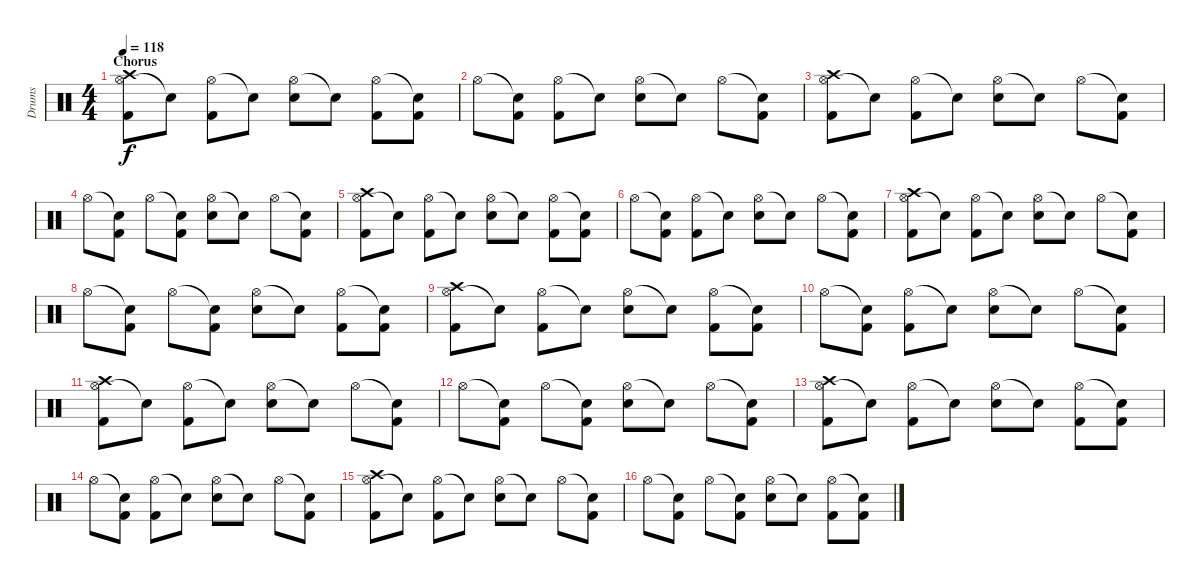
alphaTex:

\track ("Drums" "Drums") {instrument percussion}
\staff {score}
\articulation defaults
\ts (4 4)
\section ("" "Chorus")
\tempo 118
\clef neutral
\ks c
("Hi-Hat (open)" "Kick (hit) 2" "Crash high (hit)").8{dy f} "Snare (hit)"{t}.8 ("Hi-Hat (open)" "Kick (hit) 2").8 "Snare (hit)"{t}.8 ("Hi-Hat (open)" "Electric Snare (hit)").8 "Snare (hit)"{t}.8 ("Hi-Hat (open)" "Kick (hit) 2").8 ("Snare (hit)"{t} "Kick (hit) 2").8 |
"Hi-Hat (open)".8 ("Snare (hit)"{t} "Kick (hit) 2").8 ("Hi-Hat (open)" "Kick (hit) 2").8 "Snare (hit)"{t}.8 ("Hi-Hat (open)" "Electric Snare (hit)").8 "Snare (hit)"{t}.8 "Hi-Hat (open)".8 ("Snare (hit)"{t} "Kick (hit) 2").8 |
("Hi-Hat (open)" "Kick (hit) 2" "Crash high (hit)").8 "Snare (hit)"{t}.8 ("Hi-Hat (open)" "Kick (hit) 2").8 "Snare (hit)"{t}.8 ("Hi-Hat (open)" "Electric Snare (hit)").8 "Snare (hit)"{t}.8 "Hi-Hat (open)".8 ("Snare (hit)"{t} "Kick (hit) 2").8 |
"Hi-Hat (open)".8 ("Snare (hit)"{t} "Kick (hit) 2").8 "Hi-Hat (open)".8 ("Snare (hit)"{t} "Kick (hit) 2").8 ("Hi-Hat (open)" "Electric Snare (hit)").8 "Snare (hit)"{t}.8 "Hi-Hat (open)".8 ("Snare (hit)"{t} "Kick (hit) 2").8 |
("Hi-Hat (open)" "Kick (hit) 2" "Crash high (hit)").8 "Snare (hit)"{t}.8 ("Hi-Hat (open)" "Kick (hit) 2").8 "Snare (hit)"{t}.8 ("Hi-Hat (open)" "Electric Snare (hit)").8 "Snare (hit)"{t}.8 ("Hi-Hat (open)" "Kick (hit) 2").8 ("Snare (hit)"{t} "Kick (hit) 2").8 |
"Hi-Hat (open)".8 ("Snare (hit)"{t} "Kick (hit) 2").8 ("Hi-Hat (open)" "Kick (hit) 2").8 "Snare (hit)"{t}.8 ("Hi-Hat (open)" "Electric Snare (hit)").8 "Snare (hit)"{t}.8 "Hi-Hat (open)".8 ("Snare (hit)"{t} "Kick (hit) 2").8 |
("Hi-Hat (open)" "Kick (hit) 2" "Crash high (hit)").8 "Snare (hit)"{t}.8 ("Hi-Hat (open)" "Kick (hit) 2").8 "Snare (hit)"{t}.8 ("Hi-Hat (open)" "Electric Snare (hit)").8 "Snare (hit)"{t}.8 "Hi-Hat (open)".8 ("Snare (hit)"{t} "Kick (hit) 2").8 |
"Hi-Hat (open)".8 ("Snare (hit)"{t} "Kick (hit) 2").8 "Hi-Hat (open)".8 ("Snare (hit)"{t} "Kick (hit) 2").8 ("Hi-Hat (open)" "Electric Snare (hit)").8 "Snare (hit)"{t}.8 ("Hi-Hat (open)" "Kick (hit) 2").8 ("Snare (hit)"{t} "Kick (hit) 2").8 |
("Hi-Hat (open)" "Kick (hit) 2" "Crash high (hit)").8 "Snare (hit)"{t}.8 ("Hi-Hat (open)" "Kick (hit) 2").8 "Snare (hit)"{t}.8 ("Hi-Hat (open)" "Electric Snare (hit)").8 "Snare (hit)"{t}.8 ("Hi-Hat (open)" "Kick (hit) 2").8 ("Snare (hit)"{t} "Kick (hit) 2").8 |
"Hi-Hat (open)".8 ("Snare (hit)"{t} "Kick (hit) 2").8 ("Hi-Hat (open)" "Kick (hit) 2").8 "Snare (hit)"{t}.8 ("Hi-Hat (open)" "Electric Snare (hit)").8 "Snare (hit)"{t}.8 "Hi-Hat (open)".8 ("Snare (hit)"{t} "Kick (hit) 2").8 |
("Hi-Hat (open)" "Kick (hit) 2" "Crash high (hit)").8 "Snare (hit)"{t}.8 ("Hi-Hat (open)" "Kick (hit) 2").8 "Snare (hit)"{t}.8 ("Hi-Hat (open)" "Electric Snare (hit)").8 "Snare (hit)"{t}.8 "Hi-Hat (open)".8 ("Snare (hit)"{t} "Kick (hit) 2").8 |
"Hi-Hat (open)".8 ("Snare (hit)"{t} "Kick (hit) 2").8 "Hi-Hat (open)".8 ("Snare (hit)"{t} "Kick (hit) 2").8 ("Hi-Hat (open)" "Electric Snare (hit)").8 "Snare (hit)"{t}.8 "Hi-Hat (open)".8 ("Snare (hit)"{t} "Kick (hit) 2").8 |
("Hi-Hat (open)" "Kick (hit) 2" "Crash high (hit)").8 "Snare (hit)"{t}.8 ("Hi-Hat (open)" "Kick (hit) 2").8 "Snare (hit)"{t}.8 ("Hi-Hat (open)" "Electric Snare (hit)").8 "Snare (hit)"{t}.8 ("Hi-Hat (open)" "Kick (hit) 2").8 ("Snare (hit)"{t} "Kick (hit) 2").8 |
"Hi-Hat (open)".8 ("Snare (hit)"{t} "Kick (hit) 2").8 ("Hi-Hat (open)" "Kick (hit) 2").8 "Snare (hit)"{t}.8 ("Hi-Hat (open)" "Electric Snare (hit)").8 "Snare (hit)"{t}.8 "Hi-Hat (open)".8 ("Snare (hit)"{t} "Kick (hit) 2").8 |
("Hi-Hat (open)" "Kick (hit) 2" "Crash high (hit)").8 "Snare (hit)"{t}.8 ("Hi-Hat (open)" "Kick (hit) 2").8 "Snare (hit)"{t}.8 ("Hi-Hat (open)" "Electric Snare (hit)").8 "Snare (hit)"{t}.8 "Hi-Hat (open)".8 ("Snare (hit)"{t} "Kick (hit) 2").8 |
"Hi-Hat (open)".8 ("Snare (hit)"{t} "Kick (hit) 2").8 "Hi-Hat (open)".8 ("Snare (hit)"{t} "Kick (hit) 2").8 ("Hi-Hat (open)" "Electric Snare (hit)").8 "Snare (hit)"{t}.8 ("Hi-Hat (open)" "Kick (hit) 2").8 ("Snare (hit)"{t} "Kick (hit) 2").8
